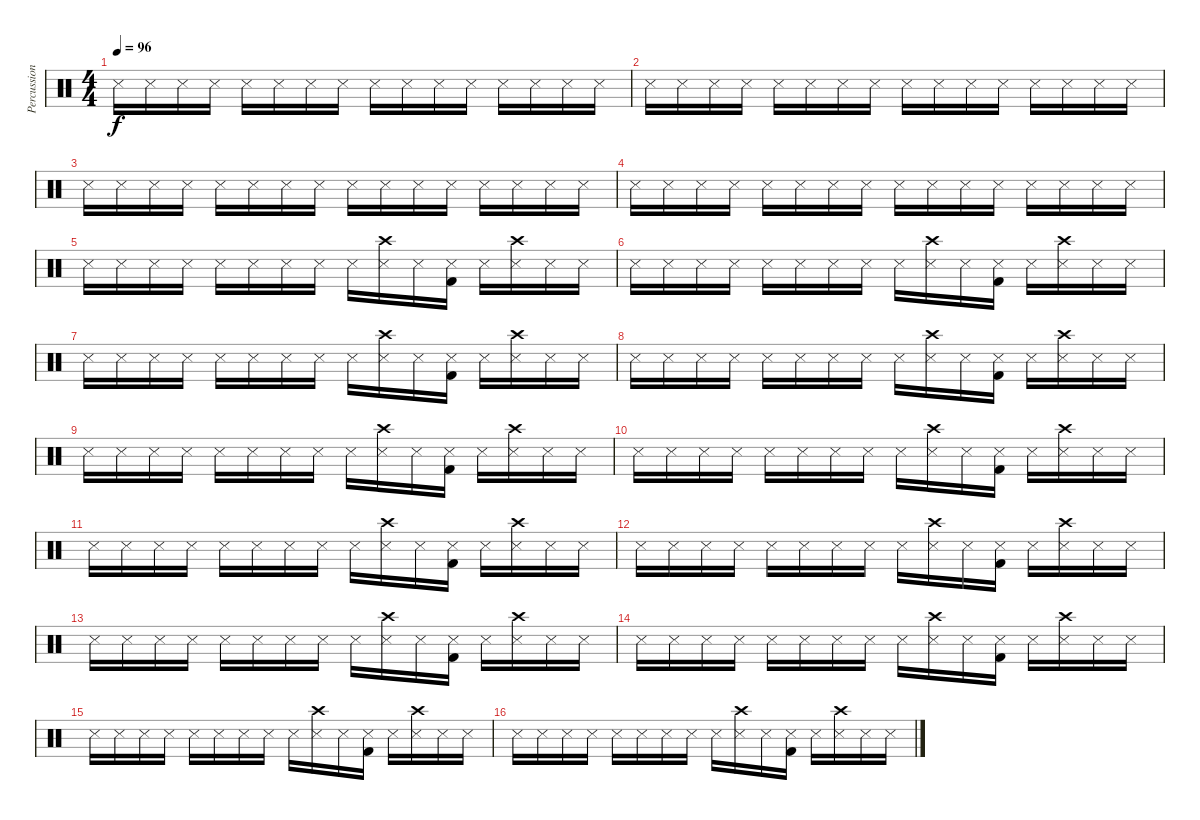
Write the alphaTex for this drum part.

\track ("Percussion 3 diff" "Percussion") {instrument percussion}
\staff {score}
\articulation defaults
\ts (4 4)
\tempo 96
\clef neutral
\ks c "Snare (side stick) 3".16{dy f} "Snare (side stick) 3".16 "Snare (side stick) 3".16 "Snare (side stick) 3".16 "Snare (side stick) 3".16 "Snare (side stick) 3".16 "Snare (side stick) 3".16 "Snare (side stick) 3".16 "Snare (side stick) 3".16 "Snare (side stick) 3".16 "Snare (side stick) 3".16 "Snare (side stick) 3".16 "Snare (side stick) 3".16 "Snare (side stick) 3".16 "Snare (side stick) 3".16 "Snare (side stick) 3".16
|
"Snare (side stick) 3".16 "Snare (side stick) 3".16 "Snare (side stick) 3".16 "Snare (side stick) 3".16 "Snare (side stick) 3".16 "Snare (side stick) 3".16 "Snare (side stick) 3".16 "Snare (side stick) 3".16 "Snare (side stick) 3".16 "Snare (side stick) 3".16 "Snare (side stick) 3".16 "Snare (side stick) 3".16 "Snare (side stick) 3".16 "Snare (side stick) 3".16 "Snare (side stick) 3".16 "Snare (side stick) 3".16 |
"Snare (side stick) 3".16 "Snare (side stick) 3".16 "Snare (side stick) 3".16 "Snare (side stick) 3".16 "Snare (side stick) 3".16 "Snare (side stick) 3".16 "Snare (side stick) 3".16 "Snare (side stick) 3".16 "Snare (side stick) 3".16 "Snare (side stick) 3".16 "Snare (side stick) 3".16 "Snare (side stick) 3".16 "Snare (side stick) 3".16 "Snare (side stick) 3".16 "Snare (side stick) 3".16 "Snare (side stick) 3".16 |
"Snare (side stick) 3".16 "Snare (side stick) 3".16 "Snare (side stick) 3".16 "Snare (side stick) 3".16 "Snare (side stick) 3".16 "Snare (side stick) 3".16 "Snare (side stick) 3".16 "Snare (side stick) 3".16 "Snare (side stick) 3".16 "Snare (side stick) 3".16 "Snare (side stick) 3".16 "Snare (side stick) 3".16 "Snare (side stick) 3".16 "Snare (side stick) 3".16 "Snare (side stick) 3".16 "Snare (side stick) 3".16 |
"Snare (side stick) 3".16 "Snare (side stick) 3".16 "Snare (side stick) 3".16 "Snare (side stick) 3".16 "Snare (side stick) 3".16 "Snare (side stick) 3".16 "Snare (side stick) 3".16 "Snare (side stick) 3".16 "Snare (side stick) 3".16 ("Snare (side stick) 3" "Crash high (hit)").16 "Snare (side stick) 3".16 ("Snare (side stick) 3" "Kick (hit) 2").16 "Snare (side stick) 3".16 ("Snare (side stick) 3" "Crash high (hit)").16 "Snare (side stick) 3".16 "Snare (side stick) 3".16 |
"Snare (side stick) 3".16 "Snare (side stick) 3".16 "Snare (side stick) 3".16 "Snare (side stick) 3".16 "Snare (side stick) 3".16 "Snare (side stick) 3".16 "Snare (side stick) 3".16 "Snare (side stick) 3".16 "Snare (side stick) 3".16 ("Snare (side stick) 3" "Crash high (hit)").16 "Snare (side stick) 3".16 ("Snare (side stick) 3" "Kick (hit) 2").16 "Snare (side stick) 3".16 ("Snare (side stick) 3" "Crash high (hit)").16 "Snare (side stick) 3".16 "Snare (side stick) 3".16 |
"Snare (side stick) 3".16 "Snare (side stick) 3".16 "Snare (side stick) 3".16 "Snare (side stick) 3".16 "Snare (side stick) 3".16 "Snare (side stick) 3".16 "Snare (side stick) 3".16 "Snare (side stick) 3".16 "Snare (side stick) 3".16 ("Snare (side stick) 3" "Crash high (hit)").16 "Snare (side stick) 3".16 ("Snare (side stick) 3" "Kick (hit) 2").16 "Snare (side stick) 3".16 ("Snare (side stick) 3" "Crash high (hit)").16 "Snare (side stick) 3".16 "Snare (side stick) 3".16 |
"Snare (side stick) 3".16 "Snare (side stick) 3".16 "Snare (side stick) 3".16 "Snare (side stick) 3".16 "Snare (side stick) 3".16 "Snare (side stick) 3".16 "Snare (side stick) 3".16 "Snare (side stick) 3".16 "Snare (side stick) 3".16 ("Snare (side stick) 3" "Crash high (hit)").16 "Snare (side stick) 3".16 ("Snare (side stick) 3" "Kick (hit) 2").16 "Snare (side stick) 3".16 ("Snare (side stick) 3" "Crash high (hit)").16 "Snare (side stick) 3".16 "Snare (side stick) 3".16 |
"Snare (side stick) 3".16 "Snare (side stick) 3".16 "Snare (side stick) 3".16 "Snare (side stick) 3".16 "Snare (side stick) 3".16 "Snare (side stick) 3".16 "Snare (side stick) 3".16 "Snare (side stick) 3".16 "Snare (side stick) 3".16 ("Snare (side stick) 3" "Crash high (hit)").16 "Snare (side stick) 3".16 ("Snare (side stick) 3" "Kick (hit) 2").16 "Snare (side stick) 3".16 ("Snare (side stick) 3" "Crash high (hit)").16 "Snare (side stick) 3".16 "Snare (side stick) 3".16 |
"Snare (side stick) 3".16 "Snare (side stick) 3".16 "Snare (side stick) 3".16 "Snare (side stick) 3".16 "Snare (side stick) 3".16 "Snare (side stick) 3".16 "Snare (side stick) 3".16 "Snare (side stick) 3".16 "Snare (side stick) 3".16 ("Snare (side stick) 3" "Crash high (hit)").16 "Snare (side stick) 3".16 ("Snare (side stick) 3" "Kick (hit) 2").16 "Snare (side stick) 3".16 ("Snare (side stick) 3" "Crash high (hit)").16 "Snare (side stick) 3".16 "Snare (side stick) 3".16 |
"Snare (side stick) 3".16 "Snare (side stick) 3".16 "Snare (side stick) 3".16 "Snare (side stick) 3".16 "Snare (side stick) 3".16 "Snare (side stick) 3".16 "Snare (side stick) 3".16 "Snare (side stick) 3".16 "Snare (side stick) 3".16 ("Snare (side stick) 3" "Crash high (hit)").16 "Snare (side stick) 3".16 ("Snare (side stick) 3" "Kick (hit) 2").16 "Snare (side stick) 3".16 ("Snare (side stick) 3" "Crash high (hit)").16 "Snare (side stick) 3".16 "Snare (side stick) 3".16 |
"Snare (side stick) 3".16 "Snare (side stick) 3".16 "Snare (side stick) 3".16 "Snare (side stick) 3".16 "Snare (side stick) 3".16 "Snare (side stick) 3".16 "Snare (side stick) 3".16 "Snare (side stick) 3".16 "Snare (side stick) 3".16 ("Snare (side stick) 3" "Crash high (hit)").16 "Snare (side stick) 3".16 ("Snare (side stick) 3" "Kick (hit) 2").16 "Snare (side stick) 3".16 ("Snare (side stick) 3" "Crash high (hit)").16 "Snare (side stick) 3".16 "Snare (side stick) 3".16 |
"Snare (side stick) 3".16 "Snare (side stick) 3".16 "Snare (side stick) 3".16 "Snare (side stick) 3".16 "Snare (side stick) 3".16 "Snare (side stick) 3".16 "Snare (side stick) 3".16 "Snare (side stick) 3".16 "Snare (side stick) 3".16 ("Snare (side stick) 3" "Crash high (hit)").16 "Snare (side stick) 3".16 ("Snare (side stick) 3" "Kick (hit) 2").16 "Snare (side stick) 3".16 ("Snare (side stick) 3" "Crash high (hit)").16 "Snare (side stick) 3".16 "Snare (side stick) 3".16 |
"Snare (side stick) 3".16 "Snare (side stick) 3".16 "Snare (side stick) 3".16 "Snare (side stick) 3".16 "Snare (side stick) 3".16 "Snare (side stick) 3".16 "Snare (side stick) 3".16 "Snare (side stick) 3".16 "Snare (side stick) 3".16 ("Snare (side stick) 3" "Crash high (hit)").16 "Snare (side stick) 3".16 ("Snare (side stick) 3" "Kick (hit) 2").16 "Snare (side stick) 3".16 ("Snare (side stick) 3" "Crash high (hit)").16 "Snare (side stick) 3".16 "Snare (side stick) 3".16 |
"Snare (side stick) 3".16 "Snare (side stick) 3".16 "Snare (side stick) 3".16 "Snare (side stick) 3".16 "Snare (side stick) 3".16 "Snare (side stick) 3".16 "Snare (side stick) 3".16 "Snare (side stick) 3".16 "Snare (side stick) 3".16 ("Snare (side stick) 3" "Crash high (hit)").16 "Snare (side stick) 3".16 ("Snare (side stick) 3" "Kick (hit) 2").16 "Snare (side stick) 3".16 ("Snare (side stick) 3" "Crash high (hit)").16 "Snare (side stick) 3".16 "Snare (side stick) 3".16 |
"Snare (side stick) 3".16 "Snare (side stick) 3".16 "Snare (side stick) 3".16 "Snare (side stick) 3".16 "Snare (side stick) 3".16 "Snare (side stick) 3".16 "Snare (side stick) 3".16 "Snare (side stick) 3".16 "Snare (side stick) 3".16 ("Snare (side stick) 3" "Crash high (hit)").16 "Snare (side stick) 3".16 ("Snare (side stick) 3" "Kick (hit) 2").16 "Snare (side stick) 3".16 ("Snare (side stick) 3" "Crash high (hit)").16 "Snare (side stick) 3".16 "Snare (side stick) 3".16
